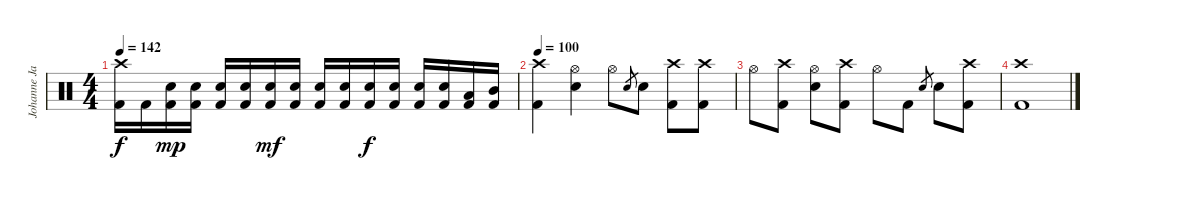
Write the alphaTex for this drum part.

\track ("Johanne James" "Johanne Ja") {instrument percussion}
\staff {score}
\articulation defaults
\ts (4 4)
\tempo 142
\clef neutral
\ks c
("Crash high (hit)" "Kick (hit) 2").16{dy f} "Kick (hit) 2".16 ("Snare (hit) 2" "Kick (hit) 2").16{dy mp} ("Snare (hit) 2" "Kick (hit) 2").16 ("Snare (hit) 2" "Kick (hit) 2").16 ("Snare (hit) 2" "Kick (hit) 2").16 ("Snare (hit) 2" "Kick (hit) 2").16{dy mf} ("Snare (hit) 2" "Kick (hit) 2").16 ("Snare (hit) 2" "Kick (hit) 2").16 ("Snare (hit) 2" "Kick (hit) 2").16 ("Snare (hit) 2" "Kick (hit) 2").16{dy f} ("Snare (hit) 2" "Kick (hit) 2").16 ("Snare (hit) 2" "Kick (hit) 2").16 ("Snare (hit) 2" "Kick (hit) 2").16 ("Low Tom (hit)" "Kick (hit) 2").16 ("Mid Tom (hit)" "Kick (hit) 2").16 |
\tempo 100
("Crash high (hit)" "Kick (hit) 2").4 ("Hi-Hat (open)" "Snare (hit) 2").4 "Hi-Hat (open)".8 "Snare (hit) 2".8{gr} "Snare (hit) 2".8 ("Crash high (hit)" "Kick (hit) 2").8 ("Crash high (hit)" "Kick (hit) 2").8 |
"Hi-Hat (open)".8 ("Crash high (hit)" "Kick (hit) 2").8 ("Hi-Hat (open)" "Snare (hit) 2").8 ("Crash high (hit)" "Kick (hit) 2").8 "Hi-Hat (open)".8 "Kick (hit) 2".8 "Snare (hit) 2".8{gr} "Snare (hit) 2".8 ("Crash high (hit)" "Kick (hit) 2").8 |
("Crash high (hit)" "Kick (hit) 2").1
